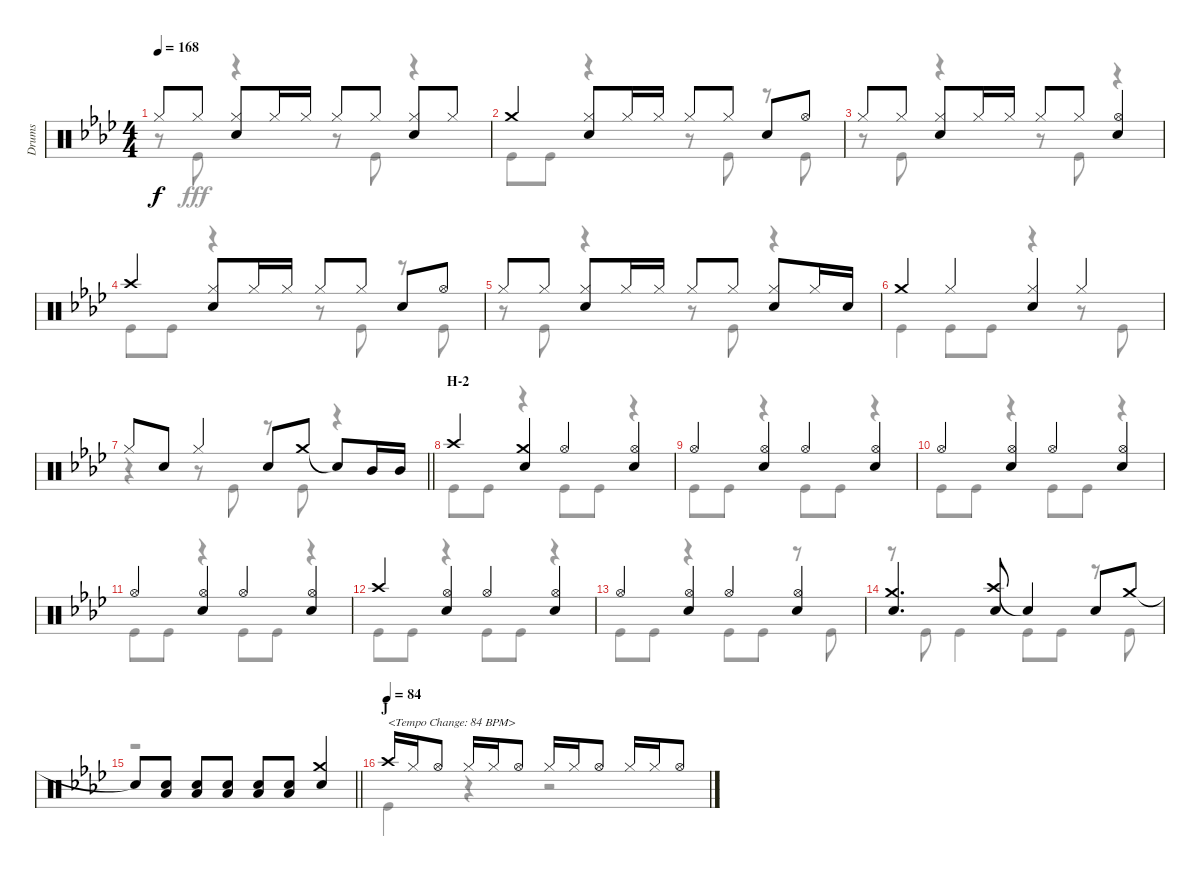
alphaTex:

\track ("Drums" "Drums") {instrument percussion}
\staff {score}
\articulation defaults
\voice
\ts (4 4)
\tempo 168
\clef neutral
\ks ab "Hi-Hat (closed)".8{dy f} "Hi-Hat (closed)".8
("Hi-Hat (closed)" "Snare (hit) 2").8 "Hi-Hat (closed)".16 "Hi-Hat (closed)".16 "Hi-Hat (closed)".8 "Hi-Hat (closed)".8 ("Hi-Hat (closed)" "Snare (hit) 2").8 "Hi-Hat (closed)".8 |
"Crash medium (hit)".4 ("Hi-Hat (closed)" "Snare (hit) 2").8 "Hi-Hat (closed)".16 "Hi-Hat (closed)".16 "Hi-Hat (closed)".8 "Hi-Hat (closed)".8 "Snare (hit) 2".8 "Hi-Hat (open)".8 |
"Hi-Hat (closed)".8 "Hi-Hat (closed)".8 ("Hi-Hat (closed)" "Snare (hit) 2").8 "Hi-Hat (closed)".16 "Hi-Hat (closed)".16 "Hi-Hat (closed)".8 "Hi-Hat (closed)".8 ("Hi-Hat (open)" "Snare (hit) 2").4 |
"Crash high (hit)".4 ("Hi-Hat (closed)" "Snare (hit) 2").8 "Hi-Hat (closed)".16 "Hi-Hat (closed)".16 "Hi-Hat (closed)".8 "Hi-Hat (closed)".8 "Snare (hit) 2".8 "Hi-Hat (open)".8 |
"Hi-Hat (closed)".8 "Hi-Hat (closed)".8 ("Hi-Hat (closed)" "Snare (hit) 2").8 "Hi-Hat (closed)".16 "Hi-Hat (closed)".16 "Hi-Hat (closed)".8 "Hi-Hat (closed)".8 ("Hi-Hat (closed)" "Snare (hit) 2").8 "Hi-Hat (closed)".16 "Snare (hit) 2".16 |
"Crash medium (hit)".4 "Hi-Hat (closed)".4 ("Hi-Hat (closed)" "Snare (hit) 2").4 "Hi-Hat (closed)".4 |
\barLineRight lightlight "Hi-Hat (closed)".8 "Snare (hit) 2".8 "Hi-Hat (closed)".4 "Snare (hit) 2".8 "Crash medium (hit)".8 "Snare (hit)"{t}.8 "Mid Tom (hit)".16 "Mid Tom (hit)".16
|
\section ("" "H-2")
"Crash high (hit)".4 ("Crash medium (hit)" "Snare (hit) 2").4 "Hi-Hat (open)".4 ("Hi-Hat (open)" "Snare (hit) 2").4 |
"Hi-Hat (open)".4 ("Hi-Hat (open)" "Snare (hit) 2").4 "Hi-Hat (open)".4 ("Hi-Hat (open)" "Snare (hit) 2").4 |
"Hi-Hat (open)".4 ("Hi-Hat (open)" "Snare (hit) 2").4 "Hi-Hat (open)".4 ("Hi-Hat (open)" "Snare (hit) 2").4 |
"Hi-Hat (open)".4 ("Hi-Hat (open)" "Snare (hit) 2").4 "Hi-Hat (open)".4 ("Hi-Hat (open)" "Snare (hit) 2").4 |
"Crash high (hit)".4 ("Hi-Hat (open)" "Snare (hit) 2").4 "Hi-Hat (open)".4 ("Hi-Hat (open)" "Snare (hit) 2").4 |
"Hi-Hat (open)".4 ("Hi-Hat (open)" "Snare (hit) 2").4 "Hi-Hat (open)".4 ("Hi-Hat (open)" "Snare (hit) 2").4 |
("Crash medium (hit)" "Snare (hit) 2").4{d} ("Crash high (hit)" "Snare (hit) 2").8 "Snare (hit)"{t}.4 "Snare (hit) 2".8 "Crash medium (hit)".8 |
\barLineRight lightlight "Snare (hit)"{t}.8
("Snare (hit) 2" "Low Tom (hit)").8 ("Snare (hit) 2" "Low Tom (hit)").8 ("Snare (hit) 2" "Low Tom (hit)").8 ("Snare (hit) 2" "Low Tom (hit)").8 ("Snare (hit) 2" "Low Tom (hit)").8 ("Crash medium (hit)" "Snare (hit) 2").4 |
\section ("" "J")
\tempo (84)
"Crash high (hit)".16{txt "<Tempo Change: 84 BPM>"} "Hi-Hat (closed)".16 "Hi-Hat (open)".8 "Hi-Hat (closed)".16 "Hi-Hat (closed)".16 "Hi-Hat (open)".8 "Hi-Hat (closed)".16 "Hi-Hat (closed)".16 "Hi-Hat (open)".8 "Hi-Hat (closed)".16 "Hi-Hat (closed)".16 "Hi-Hat (open)".8
\voice
\clef neutral
\ottava regular
\simile none
\ks ab
r.8{dy fff} "Kick (hit)".8 r.4 r.8 "Kick (hit)".8 r.4 |
"Kick (hit)".8 "Kick (hit)".8 r.4 r.8 "Kick (hit)".8 r.8 "Kick (hit)".8 |
r.8 "Kick (hit)".8 r.4 r.8 "Kick (hit)".8 r.4 |
"Kick (hit)".8 "Kick (hit)".8 r.4 r.8 "Kick (hit)".8 r.8 "Kick (hit)".8 |
r.8 "Kick (hit)".8 r.4 r.8 "Kick (hit)".8 r.4 |
"Kick (hit)".4 "Kick (hit)".8 "Kick (hit)".8 r.4 r.8 "Kick (hit)".8 |
\barLineRight lightlight
r.4 r.8 "Kick (hit)".8 r.8 "Kick (hit)".8 r.4 |
"Kick (hit)".8 "Kick (hit)".8 r.4 "Kick (hit)".8 "Kick (hit)".8 r.4 |
"Kick (hit)".8 "Kick (hit)".8 r.4 "Kick (hit)".8 "Kick (hit)".8 r.4 |
"Kick (hit)".8 "Kick (hit)".8 r.4 "Kick (hit)".8 "Kick (hit)".8 r.4 |
"Kick (hit)".8 "Kick (hit)".8 r.4 "Kick (hit)".8 "Kick (hit)".8 r.4 |
"Kick (hit)".8 "Kick (hit)".8 r.4 "Kick (hit)".8 "Kick (hit)".8 r.4 |
"Kick (hit)".8 "Kick (hit)".8 r.4 "Kick (hit)".8 "Kick (hit)".8 r.8 "Kick (hit)".8 |
r.8 "Kick (hit)".8 "Kick (hit)".4 "Kick (hit)".8 "Kick (hit)".8 r.8 "Kick (hit)".8 |
\barLineRight lightlight
r.1 |
"Kick (hit)".4 r.4 r.2
